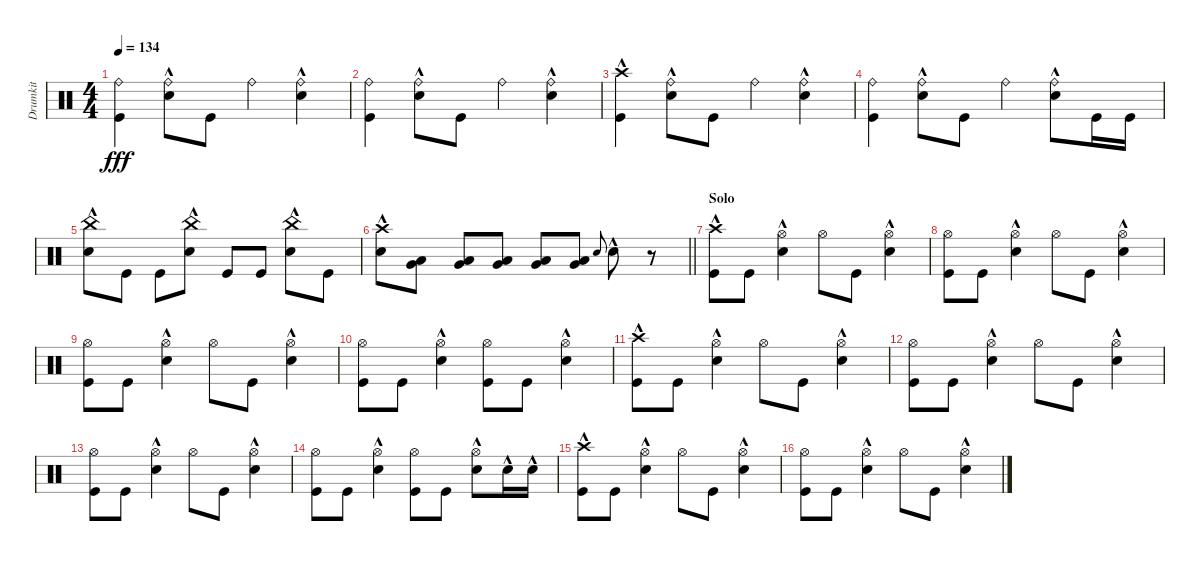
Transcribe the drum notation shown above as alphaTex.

\track ("Drumkit" "Drumkit") {instrument percussion}
\staff {score}
\articulation defaults
\ts (4 4)
\tempo 134
\clef neutral
\ks c
("Kick (hit)" "Ride (bell)").4{dy fff} ("Snare (hit) 2"{hac} "Ride (bell)").8 "Kick (hit)".8 "Ride (bell)".4 ("Snare (hit) 2"{hac} "Ride (bell)").4 |
("Kick (hit)" "Ride (bell)").4 ("Snare (hit) 2"{hac} "Ride (bell)").8 "Kick (hit)".8 "Ride (bell)".4 ("Snare (hit) 2"{hac} "Ride (bell)").4 |
("Kick (hit)" "Crash high (hit)"{hac}).4 ("Snare (hit) 2"{hac} "Ride (bell)").8 "Kick (hit)".8 "Ride (bell)".4 ("Snare (hit) 2"{hac} "Ride (bell)").4 |
("Kick (hit)" "Ride (bell)").4 ("Snare (hit) 2"{hac} "Ride (bell)").8 "Kick (hit)".8 "Ride (bell)".4 ("Snare (hit) 2"{hac} "Ride (bell)").8 "Kick (hit)".16 "Kick (hit)".16 |
("Snare (hit) 2"{hac} "China (hit)"{hac}).8 "Kick (hit)".8 "Kick (hit)".8 ("Snare (hit) 2"{hac} "China (hit)"{hac}).8 "Kick (hit)".8 "Kick (hit)".8 ("Snare (hit) 2"{hac} "China (hit)"{hac}).8 "Kick (hit)".8 |
\barLineRight lightlight
("Snare (hit) 2"{hac} "Crash high (hit)"{hac}).8 ("Low Tom (hit)" "Very Low Tom (hit)").8 ("Low Tom (hit)" "Very Low Tom (hit)").8 ("Low Tom (hit)" "Very Low Tom (hit)").8 ("Very Low Tom (hit)" "Low Floor Tom (hit)").8 ("Very Low Tom (hit)" "Low Floor Tom (hit)").8 "Snare (hit)".8{gr onbeat} "Snare (hit) 2"{hac}.8 r.8 |
\section ("" "Solo")
("Kick (hit)" "Crash high (hit)"{hac}).8 "Kick (hit)".8 ("Snare (hit) 2"{hac} "Hi-Hat (open)").4 "Hi-Hat (open)".8 "Kick (hit)".8 ("Snare (hit) 2"{hac} "Hi-Hat (open)").4 |
("Kick (hit)" "Hi-Hat (open)").8 "Kick (hit)".8 ("Snare (hit) 2"{hac} "Hi-Hat (open)").4 "Hi-Hat (open)".8 "Kick (hit)".8 ("Snare (hit) 2"{hac} "Hi-Hat (open)").4 |
("Kick (hit)" "Hi-Hat (open)").8 "Kick (hit)".8 ("Snare (hit) 2"{hac} "Hi-Hat (open)").4 "Hi-Hat (open)".8 "Kick (hit)".8 ("Snare (hit) 2"{hac} "Hi-Hat (open)").4 |
("Kick (hit)" "Hi-Hat (open)").8 "Kick (hit)".8 ("Snare (hit) 2"{hac} "Hi-Hat (open)").4 ("Hi-Hat (open)" "Kick (hit)").8 "Kick (hit)".8 ("Snare (hit) 2"{hac} "Hi-Hat (open)").4 |
("Kick (hit)" "Crash high (hit)"{hac}).8 "Kick (hit)".8 ("Snare (hit) 2"{hac} "Hi-Hat (open)").4 "Hi-Hat (open)".8 "Kick (hit)".8 ("Snare (hit) 2"{hac} "Hi-Hat (open)").4 |
("Kick (hit)" "Hi-Hat (open)").8 "Kick (hit)".8 ("Snare (hit) 2"{hac} "Hi-Hat (open)").4 "Hi-Hat (open)".8 "Kick (hit)".8 ("Snare (hit) 2"{hac} "Hi-Hat (open)").4 |
("Kick (hit)" "Hi-Hat (open)").8 "Kick (hit)".8 ("Snare (hit) 2"{hac} "Hi-Hat (open)").4 "Hi-Hat (open)".8 "Kick (hit)".8 ("Snare (hit) 2"{hac} "Hi-Hat (open)").4 |
("Kick (hit)" "Hi-Hat (open)").8 "Kick (hit)".8 ("Snare (hit) 2"{hac} "Hi-Hat (open)").4 ("Hi-Hat (open)" "Kick (hit)").8 "Kick (hit)".8 ("Snare (hit) 2"{hac} "Hi-Hat (open)").8 "Snare (hit) 2"{hac}.16 "Snare (hit) 2"{hac}.16 |
("Kick (hit)" "Crash high (hit)"{hac}).8 "Kick (hit)".8 ("Snare (hit) 2"{hac} "Hi-Hat (open)").4 "Hi-Hat (open)".8 "Kick (hit)".8 ("Snare (hit) 2"{hac} "Hi-Hat (open)").4 |
("Kick (hit)" "Hi-Hat (open)").8 "Kick (hit)".8 ("Snare (hit) 2"{hac} "Hi-Hat (open)").4 "Hi-Hat (open)".8 "Kick (hit)".8 ("Snare (hit) 2"{hac} "Hi-Hat (open)").4
